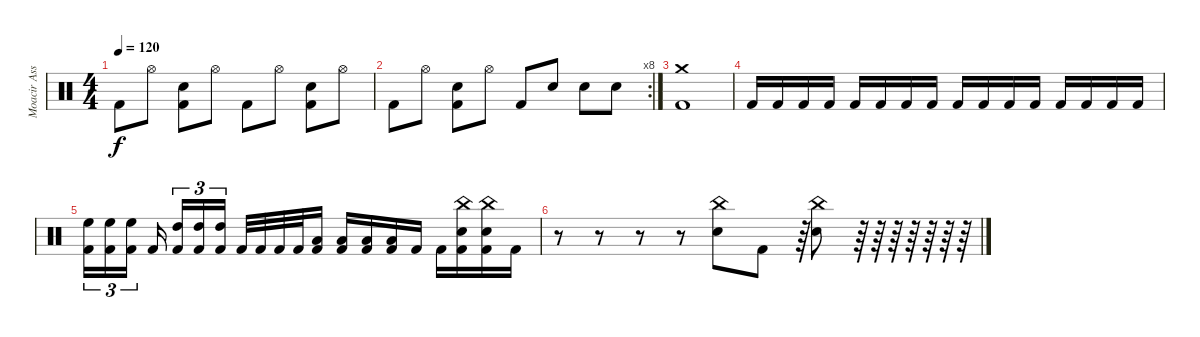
\track ("Moacir Assunção (Bateria)" "Moacir Ass") {instrument percussion}
\staff {score}
\articulation defaults
\ts (4 4)
\tempo 120
\clef neutral
\ks c "Kick (hit) 2".8{dy f} "Hi-Hat (open)".8
("Electric Snare (hit)" "Kick (hit) 2").8 "Hi-Hat (open)".8 "Kick (hit) 2".8 "Hi-Hat (open)".8 ("Electric Snare (hit)" "Kick (hit) 2").8 "Hi-Hat (open)".8 |
\rc 8 "Kick (hit) 2".8 "Hi-Hat (open)".8
("Electric Snare (hit)" "Kick (hit) 2").8 "Hi-Hat (open)".8 "Kick (hit) 2".8 "Electric Snare (hit)".8 "Electric Snare (hit)".8 "Electric Snare (hit)".8 |
("Kick (hit) 2" "Crash medium (hit)").1 |
"Kick (hit) 2".16 "Kick (hit) 2".16 "Kick (hit) 2".16 "Kick (hit) 2".16 "Kick (hit) 2".16 "Kick (hit) 2".16 "Kick (hit) 2".16 "Kick (hit) 2".16 "Kick (hit) 2".16 "Kick (hit) 2".16 "Kick (hit) 2".16 "Kick (hit) 2".16 "Kick (hit) 2".16 "Kick (hit) 2".16 "Kick (hit) 2".16 "Kick (hit) 2".16 |
("Kick (hit) 2" "High Floor Tom (hit)").16{tu (3 2)} ("Kick (hit) 2" "High Floor Tom (hit)").16{tu (3 2)} ("Kick (hit) 2" "High Floor Tom (hit)").16{tu (3 2)} "Kick (hit) 2".16 ("Kick (hit) 2" "High Tom (hit)").16{tu (3 2)} ("Kick (hit) 2" "High Tom (hit)").16{tu (3 2)} ("Kick (hit) 2" "High Tom (hit)").16{tu (3 2)} "Kick (hit) 2".32 "Kick (hit) 2".32 "Kick (hit) 2".32 "Kick (hit) 2".32 ("Kick (hit) 2" "Low Tom (hit)").16 ("Kick (hit) 2" "Low Tom (hit)").16 ("Kick (hit) 2" "Low Tom (hit)").16 ("Kick (hit) 2" "Low Tom (hit)").16 "Kick (hit) 2".16 "Kick (hit) 2".16 ("Kick (hit) 2" "Electric Snare (hit)" "China (hit)").16 ("Kick (hit) 2" "Electric Snare (hit)" "China (hit)").16 "Kick (hit) 2".16 |
r.8 r.8 r.8 r.8 ("Electric Snare (hit)" "China (hit)").8 "Kick (hit) 2".8 r.64 ("Electric Snare (hit)" "China (hit)").8 r.64 r.64 r.64 r.64 r.64 r.64 r.64
